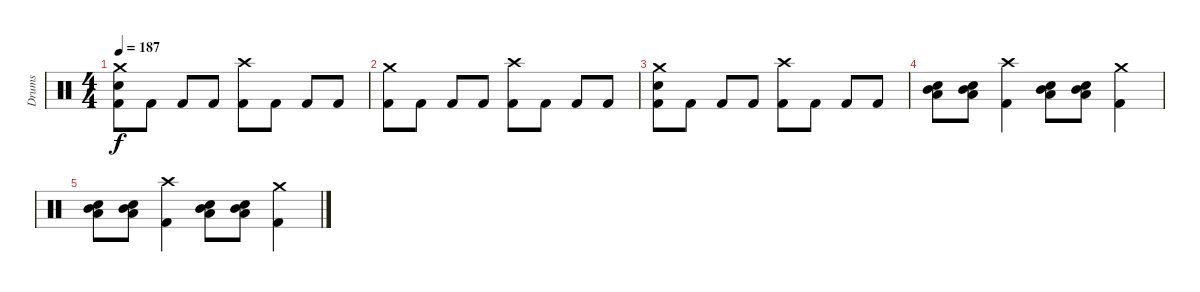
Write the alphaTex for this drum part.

\track ("Drums" "Drums") {instrument percussion}
\staff {score}
\articulation defaults
\ts (4 4)
\tempo 187
\clef neutral
\ks c
("Crash medium (hit)" "Electric Snare (hit)" "Kick (hit) 2").8{dy f} "Kick (hit) 2".8 "Kick (hit) 2".8 "Kick (hit) 2".8 ("Crash high (hit)" "Kick (hit) 2").8 "Kick (hit) 2".8 "Kick (hit) 2".8 "Kick (hit) 2".8 |
("Crash medium (hit)" "Kick (hit) 2").8 "Kick (hit) 2".8 "Kick (hit) 2".8 "Kick (hit) 2".8 ("Crash high (hit)" "Kick (hit) 2").8 "Kick (hit) 2".8 "Kick (hit) 2".8 "Kick (hit) 2".8 |
("Crash medium (hit)" "Electric Snare (hit)" "Kick (hit) 2").8 "Kick (hit) 2".8 "Kick (hit) 2".8 "Kick (hit) 2".8 ("Crash high (hit)" "Kick (hit) 2").8 "Kick (hit) 2".8 "Kick (hit) 2".8 "Kick (hit) 2".8 |
("Low Tom (hit)" "Mid Tom (hit)" "Electric Snare (hit)").8 ("Low Tom (hit)" "Mid Tom (hit)" "Electric Snare (hit)").8 ("Crash high (hit)" "Kick (hit) 2").4 ("Low Tom (hit)" "Mid Tom (hit)" "Electric Snare (hit)").8 ("Low Tom (hit)" "Mid Tom (hit)" "Electric Snare (hit)").8 ("Crash medium (hit)" "Kick (hit) 2").4 |
("Low Tom (hit)" "Mid Tom (hit)" "Electric Snare (hit)").8 ("Low Tom (hit)" "Mid Tom (hit)" "Electric Snare (hit)").8 ("Crash high (hit)" "Kick (hit) 2").4 ("Low Tom (hit)" "Mid Tom (hit)" "Electric Snare (hit)").8 ("Low Tom (hit)" "Mid Tom (hit)" "Electric Snare (hit)").8 ("Crash medium (hit)" "Kick (hit) 2").4
